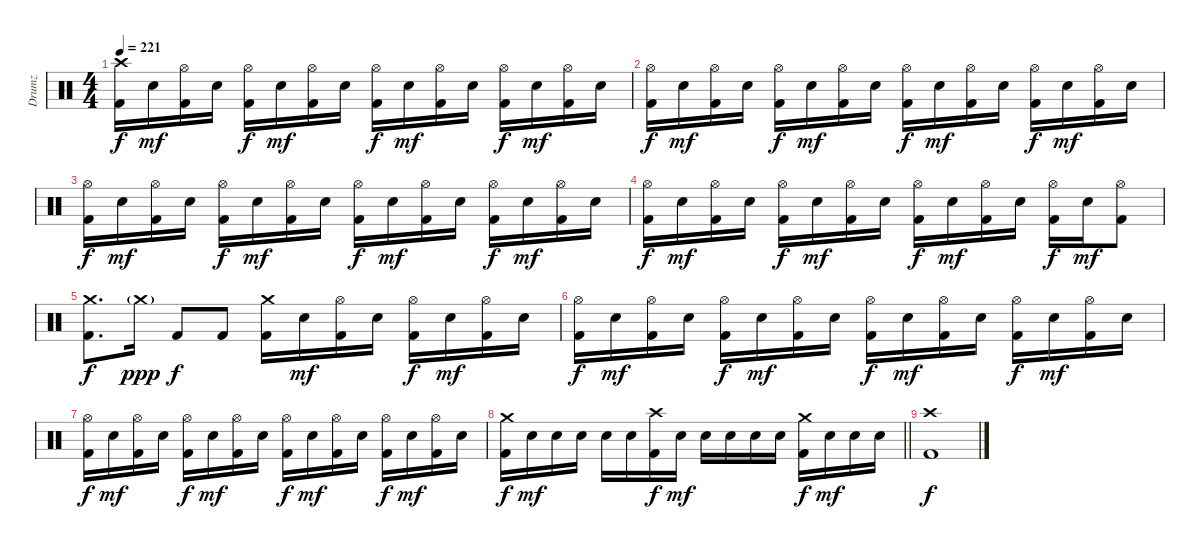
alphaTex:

\track ("Drumz" "Drumz") {instrument percussion}
\staff {score}
\articulation defaults
\ts (4 4)
\tempo 221
\clef neutral
\ks c
("Crash high (hit)" "Kick (hit) 2").16{dy f} "Electric Snare (hit)".16{dy mf} ("Hi-Hat (open)" "Kick (hit) 2").16 "Electric Snare (hit)".16 ("Hi-Hat (open)" "Kick (hit) 2").16{dy f} "Electric Snare (hit)".16{dy mf} ("Hi-Hat (open)" "Kick (hit) 2").16 "Electric Snare (hit)".16 ("Hi-Hat (open)" "Kick (hit) 2").16{dy f} "Electric Snare (hit)".16{dy mf} ("Hi-Hat (open)" "Kick (hit) 2").16 "Electric Snare (hit)".16 ("Hi-Hat (open)" "Kick (hit) 2").16{dy f} "Electric Snare (hit)".16{dy mf} ("Hi-Hat (open)" "Kick (hit) 2").16 "Electric Snare (hit)".16 |
("Hi-Hat (open)" "Kick (hit) 2").16{dy f} "Electric Snare (hit)".16{dy mf} ("Hi-Hat (open)" "Kick (hit) 2").16 "Electric Snare (hit)".16 ("Hi-Hat (open)" "Kick (hit) 2").16{dy f} "Electric Snare (hit)".16{dy mf} ("Hi-Hat (open)" "Kick (hit) 2").16 "Electric Snare (hit)".16 ("Hi-Hat (open)" "Kick (hit) 2").16{dy f} "Electric Snare (hit)".16{dy mf} ("Hi-Hat (open)" "Kick (hit) 2").16 "Electric Snare (hit)".16 ("Hi-Hat (open)" "Kick (hit) 2").16{dy f} "Electric Snare (hit)".16{dy mf} ("Hi-Hat (open)" "Kick (hit) 2").16 "Electric Snare (hit)".16 |
("Hi-Hat (open)" "Kick (hit) 2").16{dy f} "Electric Snare (hit)".16{dy mf} ("Hi-Hat (open)" "Kick (hit) 2").16 "Electric Snare (hit)".16 ("Hi-Hat (open)" "Kick (hit) 2").16{dy f} "Electric Snare (hit)".16{dy mf} ("Hi-Hat (open)" "Kick (hit) 2").16 "Electric Snare (hit)".16 ("Hi-Hat (open)" "Kick (hit) 2").16{dy f} "Electric Snare (hit)".16{dy mf} ("Hi-Hat (open)" "Kick (hit) 2").16 "Electric Snare (hit)".16 ("Hi-Hat (open)" "Kick (hit) 2").16{dy f} "Electric Snare (hit)".16{dy mf} ("Hi-Hat (open)" "Kick (hit) 2").16 "Electric Snare (hit)".16 |
("Hi-Hat (open)" "Kick (hit) 2").16{dy f} "Electric Snare (hit)".16{dy mf} ("Hi-Hat (open)" "Kick (hit) 2").16 "Electric Snare (hit)".16 ("Hi-Hat (open)" "Kick (hit) 2").16{dy f} "Electric Snare (hit)".16{dy mf} ("Hi-Hat (open)" "Kick (hit) 2").16 "Electric Snare (hit)".16 ("Hi-Hat (open)" "Kick (hit) 2").16{dy f} "Electric Snare (hit)".16{dy mf} ("Hi-Hat (open)" "Kick (hit) 2").16 "Electric Snare (hit)".16 ("Hi-Hat (open)" "Kick (hit) 2").16{dy f} "Electric Snare (hit)".16{dy mf} ("Hi-Hat (open)" "Kick (hit) 2").8 |
("Crash medium (hit)" "Kick (hit) 2").8{d dy f} "Crash medium (hit)"{g}.16{dy ppp} "Kick (hit) 2".8{dy f} "Kick (hit) 2".8 ("Crash medium (hit)" "Kick (hit) 2").16 "Electric Snare (hit)".16{dy mf} ("Hi-Hat (open)" "Kick (hit) 2").16 "Electric Snare (hit)".16 ("Hi-Hat (open)" "Kick (hit) 2").16{dy f} "Electric Snare (hit)".16{dy mf} ("Hi-Hat (open)" "Kick (hit) 2").16 "Electric Snare (hit)".16 |
("Hi-Hat (open)" "Kick (hit) 2").16{dy f} "Electric Snare (hit)".16{dy mf} ("Hi-Hat (open)" "Kick (hit) 2").16 "Electric Snare (hit)".16 ("Hi-Hat (open)" "Kick (hit) 2").16{dy f} "Electric Snare (hit)".16{dy mf} ("Hi-Hat (open)" "Kick (hit) 2").16 "Electric Snare (hit)".16 ("Hi-Hat (open)" "Kick (hit) 2").16{dy f} "Electric Snare (hit)".16{dy mf} ("Hi-Hat (open)" "Kick (hit) 2").16 "Electric Snare (hit)".16 ("Hi-Hat (open)" "Kick (hit) 2").16{dy f} "Electric Snare (hit)".16{dy mf} ("Hi-Hat (open)" "Kick (hit) 2").16 "Electric Snare (hit)".16 |
("Hi-Hat (open)" "Kick (hit) 2").16{dy f} "Electric Snare (hit)".16{dy mf} ("Hi-Hat (open)" "Kick (hit) 2").16 "Electric Snare (hit)".16 ("Hi-Hat (open)" "Kick (hit) 2").16{dy f} "Electric Snare (hit)".16{dy mf} ("Hi-Hat (open)" "Kick (hit) 2").16 "Electric Snare (hit)".16 ("Hi-Hat (open)" "Kick (hit) 2").16{dy f} "Electric Snare (hit)".16{dy mf} ("Hi-Hat (open)" "Kick (hit) 2").16 "Electric Snare (hit)".16 ("Hi-Hat (open)" "Kick (hit) 2").16{dy f} "Electric Snare (hit)".16{dy mf} ("Hi-Hat (open)" "Kick (hit) 2").16 "Electric Snare (hit)".16 |
\barLineRight lightlight
("Crash medium (hit)" "Kick (hit) 2").16{dy f} "Electric Snare (hit)".16{dy mf} "Electric Snare (hit)".16 "Electric Snare (hit)".16 "Electric Snare (hit)".16 "Electric Snare (hit)".16 ("Crash high (hit)" "Kick (hit) 2").16{dy f} "Electric Snare (hit)".16{dy mf} "Electric Snare (hit)".16 "Electric Snare (hit)".16 "Electric Snare (hit)".16 "Electric Snare (hit)".16 ("Crash medium (hit)" "Kick (hit) 2").16{dy f} "Electric Snare (hit)".16{dy mf} "Electric Snare (hit)".16 "Electric Snare (hit)".16 |
("Crash high (hit)" "Kick (hit) 2").1{dy f}
